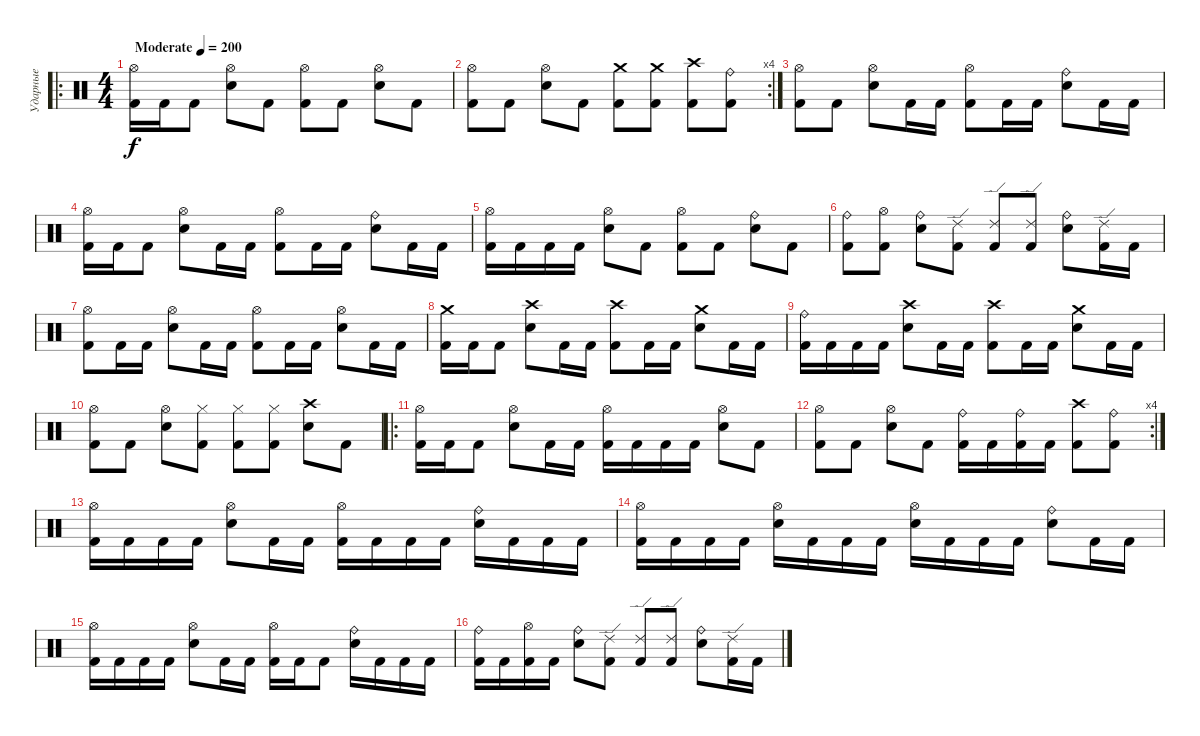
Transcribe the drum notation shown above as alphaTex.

\track ("Ударные" "Ударные") {instrument percussion}
\staff {score}
\articulation defaults
\ro
\ts (4 4)
\tempo (200 "Moderate")
\clef neutral
\ks c
("Hi-Hat (open)" "Kick (hit) 2").16{dy f} "Kick (hit) 2".16 "Kick (hit) 2".8 ("Hi-Hat (open)" "Electric Snare (hit)").8 "Kick (hit) 2".8 ("Hi-Hat (open)" "Kick (hit) 2").8 "Kick (hit) 2".8 ("Hi-Hat (open)" "Electric Snare (hit)").8 "Kick (hit) 2".8 |
\rc 4
("Hi-Hat (open)" "Kick (hit) 2").8 "Kick (hit) 2".8 ("Hi-Hat (open)" "Electric Snare (hit)").8 "Kick (hit) 2".8 ("Crash medium (hit)" "Kick (hit) 2").8 ("Crash medium (hit)" "Kick (hit) 2").8 ("Crash high (hit)" "Kick (hit) 2").8 ("Ride (bell)" "Kick (hit) 2").8 |
("Hi-Hat (open)" "Kick (hit) 2").8 "Kick (hit) 2".8 ("Hi-Hat (open)" "Electric Snare (hit)").8 "Kick (hit) 2".16 "Kick (hit) 2".16 ("Hi-Hat (open)" "Kick (hit) 2").8 "Kick (hit) 2".16 "Kick (hit) 2".16 ("Ride (bell)" "Electric Snare (hit)").8 "Kick (hit) 2".16 "Kick (hit) 2".16 |
("Hi-Hat (open)" "Kick (hit) 2").16 "Kick (hit) 2".16 "Kick (hit) 2".8 ("Hi-Hat (open)" "Electric Snare (hit)").8 "Kick (hit) 2".16 "Kick (hit) 2".16 ("Hi-Hat (open)" "Kick (hit) 2").8 "Kick (hit) 2".16 "Kick (hit) 2".16 ("Ride (bell)" "Electric Snare (hit)").8 "Kick (hit) 2".16 "Kick (hit) 2".16 |
("Hi-Hat (open)" "Kick (hit) 2").16 "Kick (hit) 2".16 "Kick (hit) 2".16 "Kick (hit) 2".16 ("Hi-Hat (open)" "Electric Snare (hit)").8 "Kick (hit) 2".8 ("Hi-Hat (open)" "Kick (hit) 2").8 "Kick (hit) 2".8 ("Ride (bell)" "Electric Snare (hit)").8 "Kick (hit) 2".8 |
("Ride (bell)" "Kick (hit) 2").8 ("Hi-Hat (open)" "Kick (hit) 2").8 ("Ride (bell)" "Electric Snare (hit)").8 ("Ride (edge) 2" "Kick (hit) 2").8 ("Ride (edge) 2" "Kick (hit) 2").8 ("Ride (edge) 2" "Kick (hit) 2").8 ("Ride (bell)" "Electric Snare (hit)").8 ("Ride (edge) 2" "Kick (hit) 2").16 "Kick (hit) 2".16 |
("Hi-Hat (open)" "Kick (hit) 2").8 "Kick (hit) 2".16 "Kick (hit) 2".16 ("Hi-Hat (open)" "Electric Snare (hit)").8 "Kick (hit) 2".16 "Kick (hit) 2".16 ("Hi-Hat (open)" "Kick (hit) 2").8 "Kick (hit) 2".16 "Kick (hit) 2".16 ("Hi-Hat (open)" "Electric Snare (hit)").8 "Kick (hit) 2".16 "Kick (hit) 2".16 |
("Crash medium (hit)" "Kick (hit) 2").16 "Kick (hit) 2".16 "Kick (hit) 2".8 ("Crash high (hit)" "Electric Snare (hit)").8 "Kick (hit) 2".16 "Kick (hit) 2".16 ("Crash high (hit)" "Kick (hit) 2").8 "Kick (hit) 2".16 "Kick (hit) 2".16 ("Crash medium (hit)" "Electric Snare (hit)").8 "Kick (hit) 2".16 "Kick (hit) 2".16 |
("Ride (bell)" "Kick (hit) 2").16 "Kick (hit) 2".16 "Kick (hit) 2".16 "Kick (hit) 2".16 ("Crash high (hit)" "Electric Snare (hit)").8 "Kick (hit) 2".16 "Kick (hit) 2".16 ("Crash high (hit)" "Kick (hit) 2").8 "Kick (hit) 2".16 "Kick (hit) 2".16 ("Crash medium (hit)" "Electric Snare (hit)").8 "Kick (hit) 2".16 "Kick (hit) 2".16 |
("Hi-Hat (open)" "Kick (hit) 2").8 "Kick (hit) 2".8 ("Hi-Hat (open)" "Electric Snare (hit)").8 ("Hi-Hat (closed)" "Kick (hit) 2").8 ("Hi-Hat (closed)" "Kick (hit) 2").8 ("Hi-Hat (closed)" "Kick (hit) 2").8 ("Crash high (hit)" "Electric Snare (hit)").8 "Kick (hit) 2".8 |
\ro
("Hi-Hat (open)" "Kick (hit) 2").16 "Kick (hit) 2".16 "Kick (hit) 2".8 ("Hi-Hat (open)" "Electric Snare (hit)").8 "Kick (hit) 2".16 "Kick (hit) 2".16 ("Hi-Hat (open)" "Kick (hit) 2").16 "Kick (hit) 2".16 "Kick (hit) 2".16 "Kick (hit) 2".16 ("Hi-Hat (open)" "Electric Snare (hit)").8 "Kick (hit) 2".8 |
\rc 4
("Hi-Hat (open)" "Kick (hit) 2").8 "Kick (hit) 2".8 ("Hi-Hat (open)" "Electric Snare (hit)").8 "Kick (hit) 2".8 ("Ride (bell)" "Kick (hit) 2").16 "Kick (hit) 2".16 ("Ride (bell)" "Kick (hit) 2").16 "Kick (hit) 2".16 ("Crash high (hit)" "Kick (hit) 2").8 ("Ride (bell)" "Kick (hit) 2").8 |
("Hi-Hat (open)" "Kick (hit) 2").16 "Kick (hit) 2".16 "Kick (hit) 2".16 "Kick (hit) 2".16 ("Hi-Hat (open)" "Electric Snare (hit)").8 "Kick (hit) 2".16 "Kick (hit) 2".16 ("Hi-Hat (open)" "Kick (hit) 2").16 "Kick (hit) 2".16 "Kick (hit) 2".16 "Kick (hit) 2".16 ("Ride (bell)" "Electric Snare (hit)").16 "Kick (hit) 2".16 "Kick (hit) 2".16 "Kick (hit) 2".16 |
("Hi-Hat (open)" "Kick (hit) 2").16 "Kick (hit) 2".16 "Kick (hit) 2".16 "Kick (hit) 2".16 ("Hi-Hat (open)" "Electric Snare (hit)").16 "Kick (hit) 2".16 "Kick (hit) 2".16 "Kick (hit) 2".16 ("Hi-Hat (open)" "Electric Snare (hit)").16 "Kick (hit) 2".16 "Kick (hit) 2".16 "Kick (hit) 2".16 ("Ride (bell)" "Electric Snare (hit)").8 "Kick (hit) 2".16 "Kick (hit) 2".16 |
("Hi-Hat (open)" "Kick (hit) 2").16 "Kick (hit) 2".16 "Kick (hit) 2".16 "Kick (hit) 2".16 ("Hi-Hat (open)" "Electric Snare (hit)").8 "Kick (hit) 2".16 "Kick (hit) 2".16 ("Hi-Hat (open)" "Kick (hit) 2").16 "Kick (hit) 2".16 "Kick (hit) 2".8 ("Ride (bell)" "Electric Snare (hit)").16 "Kick (hit) 2".16 "Kick (hit) 2".16 "Kick (hit) 2".16 |
("Ride (bell)" "Kick (hit) 2").16 "Kick (hit) 2".16 ("Hi-Hat (open)" "Kick (hit) 2").16 "Kick (hit) 2".16 ("Ride (bell)" "Electric Snare (hit)").8 ("Ride (edge) 2" "Kick (hit) 2").8 ("Ride (edge) 2" "Kick (hit) 2").8 ("Ride (edge) 2" "Kick (hit) 2").8 ("Ride (bell)" "Electric Snare (hit)").8 ("Ride (edge) 2" "Kick (hit) 2").16 "Kick (hit) 2".16
